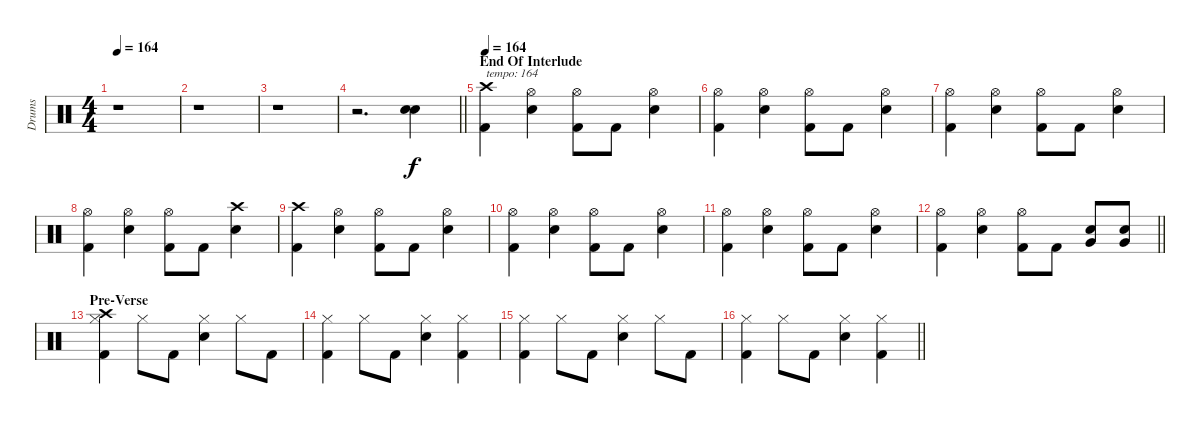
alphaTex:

\track ("Drums" "Drums") {instrument percussion}
\staff {score}
\articulation defaults
\ts (4 4)
\tempo 164
\clef neutral
\ks c
r.1{dy f} |
r.1 |
r.1 |
\barLineRight lightlight
r.2{d} ("Snare (hit) 2" "Snare (hit) 2").4{bd 120} |
\section ("" "End Of Interlude")
\tempo 164
("Crash high (hit)" "Kick (hit) 2").4{txt "tempo: 164"} ("Hi-Hat (open)" "Snare (hit) 2").4 ("Hi-Hat (open)" "Kick (hit) 2").8 "Kick (hit) 2".8 ("Hi-Hat (open)" "Snare (hit) 2").4 |
("Hi-Hat (open)" "Kick (hit) 2").4 ("Hi-Hat (open)" "Snare (hit) 2").4 ("Hi-Hat (open)" "Kick (hit) 2").8 "Kick (hit) 2".8 ("Hi-Hat (open)" "Snare (hit) 2").4 |
("Hi-Hat (open)" "Kick (hit) 2").4 ("Hi-Hat (open)" "Snare (hit) 2").4 ("Hi-Hat (open)" "Kick (hit) 2").8 "Kick (hit) 2".8 ("Hi-Hat (open)" "Snare (hit) 2").4 |
("Hi-Hat (open)" "Kick (hit) 2").4 ("Hi-Hat (open)" "Snare (hit) 2").4 ("Hi-Hat (open)" "Kick (hit) 2").8 "Kick (hit) 2".8 ("Crash high (hit)" "Snare (hit) 2").4 |
("Crash high (hit)" "Kick (hit) 2").4 ("Hi-Hat (open)" "Snare (hit) 2").4 ("Hi-Hat (open)" "Kick (hit) 2").8 "Kick (hit) 2".8 ("Hi-Hat (open)" "Snare (hit) 2").4 |
("Hi-Hat (open)" "Kick (hit) 2").4 ("Hi-Hat (open)" "Snare (hit) 2").4 ("Hi-Hat (open)" "Kick (hit) 2").8 "Kick (hit) 2".8 ("Hi-Hat (open)" "Snare (hit) 2").4 |
("Hi-Hat (open)" "Kick (hit) 2").4 ("Hi-Hat (open)" "Snare (hit) 2").4 ("Hi-Hat (open)" "Kick (hit) 2").8 "Kick (hit) 2".8 ("Hi-Hat (open)" "Snare (hit) 2").4 |
\barLineRight lightlight
("Hi-Hat (open)" "Kick (hit) 2").4 ("Hi-Hat (open)" "Snare (hit) 2").4 ("Hi-Hat (open)" "Kick (hit) 2").8 "Kick (hit) 2".8 ("Very Low Tom (hit)" "Snare (hit) 2").8 ("Very Low Tom (hit)" "Snare (hit) 2").8 |
\section ("" "Pre-Verse")
("Crash high (hit)" "Hi-Hat (closed)" "Kick (hit) 2").4 "Hi-Hat (closed)".8 "Kick (hit) 2".8 ("Hi-Hat (closed)" "Snare (hit) 2").4 "Hi-Hat (closed)".8 "Kick (hit) 2".8 |
("Hi-Hat (closed)" "Kick (hit) 2").4 "Hi-Hat (closed)".8 "Kick (hit) 2".8 ("Hi-Hat (closed)" "Snare (hit) 2").4 ("Hi-Hat (closed)" "Kick (hit) 2").4 |
("Hi-Hat (closed)" "Kick (hit) 2").4 "Hi-Hat (closed)".8 "Kick (hit) 2".8 ("Hi-Hat (closed)" "Snare (hit) 2").4 "Hi-Hat (closed)".8 "Kick (hit) 2".8 |
\barLineRight lightlight
("Hi-Hat (closed)" "Kick (hit) 2").4 "Hi-Hat (closed)".8 "Kick (hit) 2".8 ("Hi-Hat (closed)" "Snare (hit) 2").4 ("Hi-Hat (closed)" "Kick (hit) 2").4
